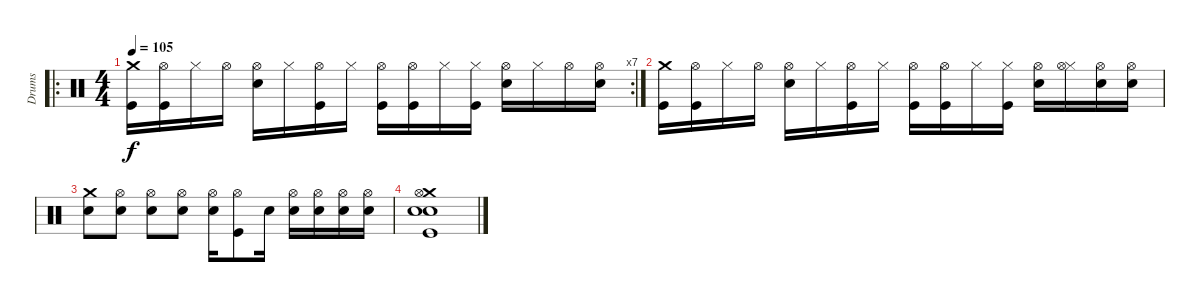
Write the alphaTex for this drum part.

\track ("Drums" "Drums") {instrument percussion}
\staff {score}
\articulation defaults
\ro
\rc 7
\ts (4 4)
\tempo 105
\clef neutral
\ks c
("Crash medium (hit)" "Kick (hit)").16{dy f} ("Hi-Hat (open)" "Kick (hit)").16 "Hi-Hat (closed)".16 "Hi-Hat (open)".16 ("Hi-Hat (open)" "Electric Snare (hit)").16 "Hi-Hat (closed)".16 ("Hi-Hat (open)" "Kick (hit)").16 "Hi-Hat (closed)".16 ("Hi-Hat (open)" "Kick (hit)").16 ("Hi-Hat (open)" "Kick (hit)").16 "Hi-Hat (closed)".16 ("Hi-Hat (closed)" "Kick (hit)").16 ("Hi-Hat (open)" "Electric Snare (hit)").16 "Hi-Hat (closed)".16 "Hi-Hat (open)".16 ("Hi-Hat (open)" "Electric Snare (hit)").16 |
("Crash medium (hit)" "Kick (hit)").16 ("Hi-Hat (open)" "Kick (hit)").16 "Hi-Hat (closed)".16 "Hi-Hat (open)".16 ("Hi-Hat (open)" "Electric Snare (hit)").16 "Hi-Hat (closed)".16 ("Hi-Hat (open)" "Kick (hit)").16 "Hi-Hat (closed)".16 ("Hi-Hat (open)" "Kick (hit)").16 ("Hi-Hat (open)" "Kick (hit)").16 "Hi-Hat (closed)".16 ("Hi-Hat (closed)" "Kick (hit)").16 ("Hi-Hat (open)" "Electric Snare (hit)").16 ("Hi-Hat (closed)" "Hi-Hat (open)").16 ("Hi-Hat (open)" "Electric Snare (hit)").16 ("Hi-Hat (open)" "Electric Snare (hit)").16 |
("Crash medium (hit)" "Electric Snare (hit)").8 ("Hi-Hat (open)" "Electric Snare (hit)").8 ("Hi-Hat (open)" "Electric Snare (hit)").8 ("Hi-Hat (open)" "Electric Snare (hit)").8 ("Hi-Hat (open)" "Electric Snare (hit)").16 ("Hi-Hat (open)" "Kick (hit)").8 "Electric Snare (hit)".16 ("Hi-Hat (open)" "Electric Snare (hit)").16 ("Hi-Hat (open)" "Electric Snare (hit)").16 ("Hi-Hat (open)" "Electric Snare (hit)").16 ("Hi-Hat (open)" "Electric Snare (hit)").16 |
("Crash medium (hit)" "Hi-Hat (open)" "Snare (hit) 2" "Electric Snare (hit)" "Kick (hit)").1
